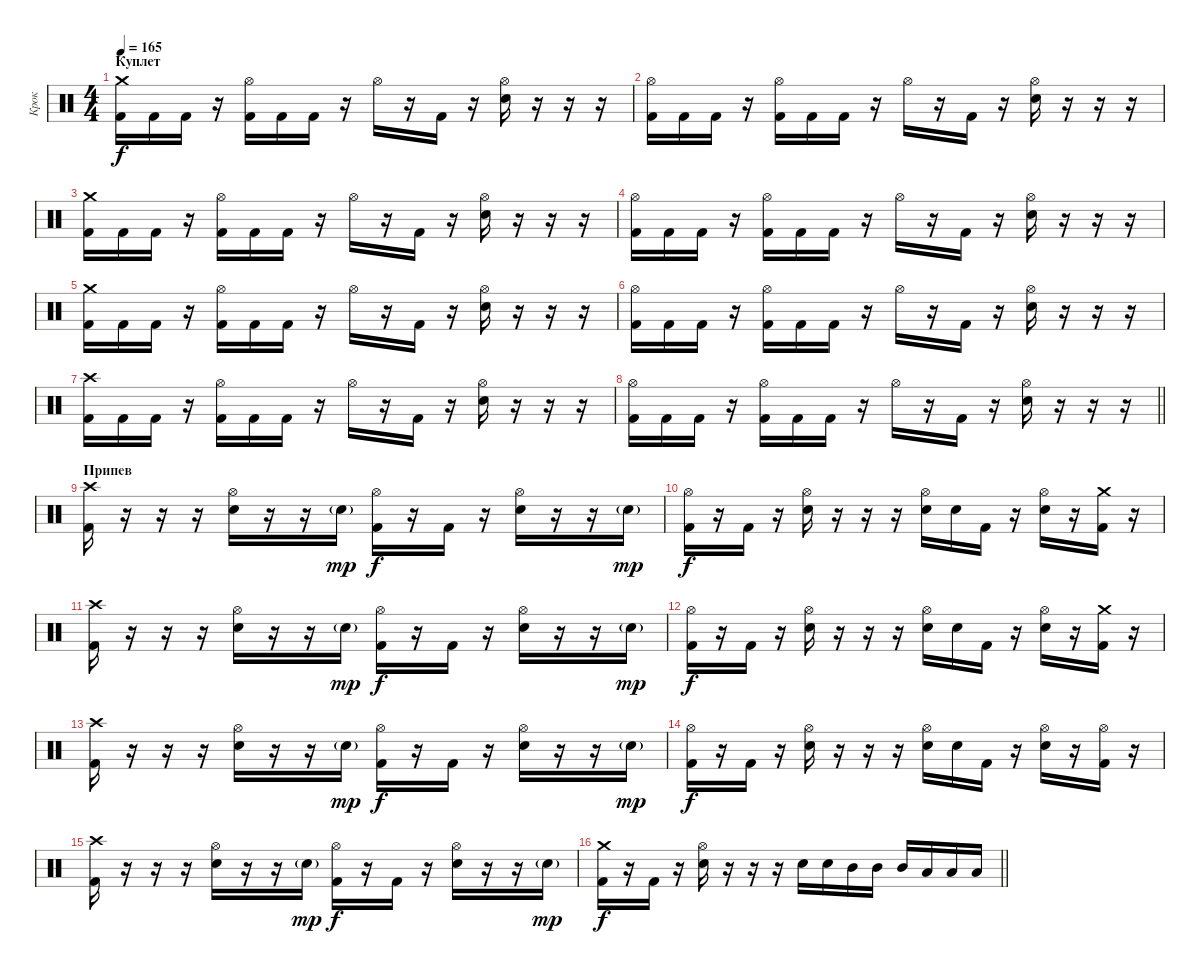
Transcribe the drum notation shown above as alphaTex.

\track ("Крок" "Крок") {instrument percussion}
\staff {score}
\articulation defaults
\ts (4 4)
\section ("" "Куплет")
\tempo 165
\clef neutral
\ks c
("Kick (hit) 2" "Crash medium (hit)").16{dy f} "Kick (hit) 2".16 "Kick (hit) 2".16 r.16 ("Kick (hit) 2" "Hi-Hat (open)").16 "Kick (hit) 2".16 "Kick (hit) 2".16 r.16 "Hi-Hat (open)".16 r.16 "Kick (hit) 2".16 r.16 ("Electric Snare (hit)" "Hi-Hat (open)").16 r.16 r.16 r.16 |
("Kick (hit) 2" "Hi-Hat (open)").16 "Kick (hit) 2".16 "Kick (hit) 2".16 r.16 ("Kick (hit) 2" "Hi-Hat (open)").16 "Kick (hit) 2".16 "Kick (hit) 2".16 r.16 "Hi-Hat (open)".16 r.16 "Kick (hit) 2".16 r.16 ("Electric Snare (hit)" "Hi-Hat (open)").16 r.16 r.16 r.16 |
("Kick (hit) 2" "Crash medium (hit)").16 "Kick (hit) 2".16 "Kick (hit) 2".16 r.16 ("Kick (hit) 2" "Hi-Hat (open)").16 "Kick (hit) 2".16 "Kick (hit) 2".16 r.16 "Hi-Hat (open)".16 r.16 "Kick (hit) 2".16 r.16 ("Electric Snare (hit)" "Hi-Hat (open)").16 r.16 r.16 r.16 |
("Kick (hit) 2" "Hi-Hat (open)").16 "Kick (hit) 2".16 "Kick (hit) 2".16 r.16 ("Kick (hit) 2" "Hi-Hat (open)").16 "Kick (hit) 2".16 "Kick (hit) 2".16 r.16 "Hi-Hat (open)".16 r.16 "Kick (hit) 2".16 r.16 ("Electric Snare (hit)" "Hi-Hat (open)").16 r.16 r.16 r.16 |
("Kick (hit) 2" "Crash medium (hit)").16 "Kick (hit) 2".16 "Kick (hit) 2".16 r.16 ("Kick (hit) 2" "Hi-Hat (open)").16 "Kick (hit) 2".16 "Kick (hit) 2".16 r.16 "Hi-Hat (open)".16 r.16 "Kick (hit) 2".16 r.16 ("Electric Snare (hit)" "Hi-Hat (open)").16 r.16 r.16 r.16 |
("Kick (hit) 2" "Hi-Hat (open)").16 "Kick (hit) 2".16 "Kick (hit) 2".16 r.16 ("Kick (hit) 2" "Hi-Hat (open)").16 "Kick (hit) 2".16 "Kick (hit) 2".16 r.16 "Hi-Hat (open)".16 r.16 "Kick (hit) 2".16 r.16 ("Electric Snare (hit)" "Hi-Hat (open)").16 r.16 r.16 r.16 |
("Kick (hit) 2" "Crash high (hit)").16 "Kick (hit) 2".16 "Kick (hit) 2".16 r.16 ("Kick (hit) 2" "Hi-Hat (open)").16 "Kick (hit) 2".16 "Kick (hit) 2".16 r.16 "Hi-Hat (open)".16 r.16 "Kick (hit) 2".16 r.16 ("Electric Snare (hit)" "Hi-Hat (open)").16 r.16 r.16 r.16 |
\barLineRight lightlight
("Kick (hit) 2" "Hi-Hat (open)").16 "Kick (hit) 2".16 "Kick (hit) 2".16 r.16 ("Kick (hit) 2" "Hi-Hat (open)").16 "Kick (hit) 2".16 "Kick (hit) 2".16 r.16 "Hi-Hat (open)".16 r.16 "Kick (hit) 2".16 r.16 ("Electric Snare (hit)" "Hi-Hat (open)").16 r.16 r.16 r.16 |
\section ("" "Припев")
("Kick (hit) 2" "Crash high (hit)").16 r.16 r.16 r.16 ("Electric Snare (hit)" "Hi-Hat (open)").16 r.16 r.16 "Electric Snare (hit)"{g}.16{dy mp} ("Kick (hit) 2" "Hi-Hat (open)").16{dy f} r.16 "Kick (hit) 2".16 r.16 ("Electric Snare (hit)" "Hi-Hat (open)").16 r.16 r.16 "Electric Snare (hit)"{g}.16{dy mp} |
("Kick (hit) 2" "Hi-Hat (open)").16{dy f} r.16 "Kick (hit) 2".16 r.16 ("Electric Snare (hit)" "Hi-Hat (open)").16 r.16 r.16 r.16 ("Electric Snare (hit)" "Hi-Hat (open)").16 "Electric Snare (hit)".16 "Kick (hit) 2".16 r.16 ("Electric Snare (hit)" "Hi-Hat (open)").16 r.16 ("Kick (hit) 2" "Crash medium (hit)").16 r.16 |
("Kick (hit) 2" "Crash high (hit)").16 r.16 r.16 r.16 ("Electric Snare (hit)" "Hi-Hat (open)").16 r.16 r.16 "Electric Snare (hit)"{g}.16{dy mp} ("Kick (hit) 2" "Hi-Hat (open)").16{dy f} r.16 "Kick (hit) 2".16 r.16 ("Electric Snare (hit)" "Hi-Hat (open)").16 r.16 r.16 "Electric Snare (hit)"{g}.16{dy mp} |
("Kick (hit) 2" "Hi-Hat (open)").16{dy f} r.16 "Kick (hit) 2".16 r.16 ("Electric Snare (hit)" "Hi-Hat (open)").16 r.16 r.16 r.16 ("Electric Snare (hit)" "Hi-Hat (open)").16 "Electric Snare (hit)".16 "Kick (hit) 2".16 r.16 ("Electric Snare (hit)" "Hi-Hat (open)").16 r.16 ("Kick (hit) 2" "Crash medium (hit)").16 r.16 |
("Kick (hit) 2" "Crash high (hit)").16 r.16 r.16 r.16 ("Electric Snare (hit)" "Hi-Hat (open)").16 r.16 r.16 "Electric Snare (hit)"{g}.16{dy mp} ("Kick (hit) 2" "Hi-Hat (open)").16{dy f} r.16 "Kick (hit) 2".16 r.16 ("Electric Snare (hit)" "Hi-Hat (open)").16 r.16 r.16 "Electric Snare (hit)"{g}.16{dy mp} |
("Kick (hit) 2" "Hi-Hat (open)").16{dy f} r.16 "Kick (hit) 2".16 r.16 ("Electric Snare (hit)" "Hi-Hat (open)").16 r.16 r.16 r.16 ("Electric Snare (hit)" "Hi-Hat (open)").16 "Electric Snare (hit)".16 "Kick (hit) 2".16 r.16 ("Electric Snare (hit)" "Hi-Hat (open)").16 r.16 ("Kick (hit) 2" "Hi-Hat (open)").16 r.16 |
("Kick (hit) 2" "Crash high (hit)").16 r.16 r.16 r.16 ("Electric Snare (hit)" "Hi-Hat (open)").16 r.16 r.16 "Electric Snare (hit)"{g}.16{dy mp} ("Kick (hit) 2" "Hi-Hat (open)").16{dy f} r.16 "Kick (hit) 2".16 r.16 ("Electric Snare (hit)" "Hi-Hat (open)").16 r.16 r.16 "Electric Snare (hit)"{g}.16{dy mp} |
\barLineRight lightlight
("Kick (hit) 2" "Crash medium (hit)").16{dy f} r.16 "Kick (hit) 2".16 r.16 ("Electric Snare (hit)" "Hi-Hat (open)").16 r.16 r.16 r.16 "Electric Snare (hit)".16 "Electric Snare (hit)".16 "Mid Tom (hit)".16 "Mid Tom (hit)".16 "Mid Tom (hit)".16 "Low Tom (hit)".16 "Low Tom (hit)".16 "Low Tom (hit)".16
